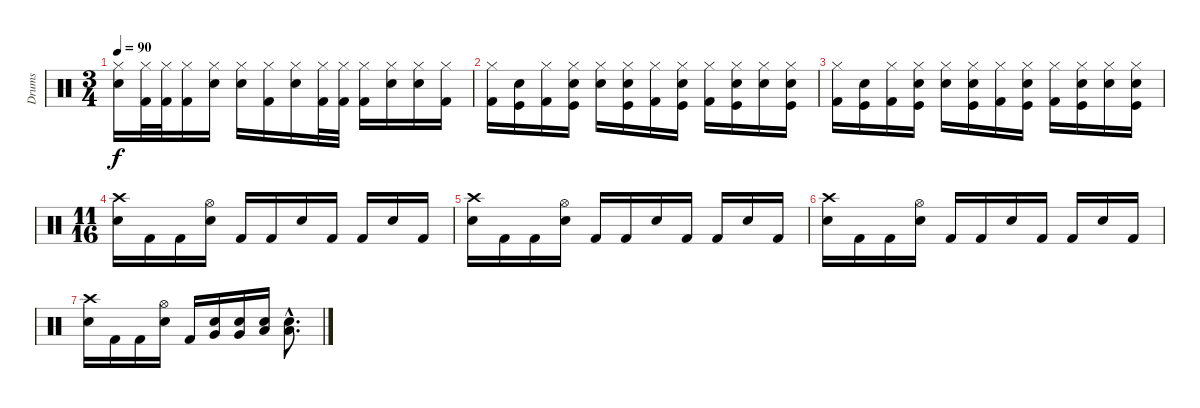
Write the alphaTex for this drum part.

\track ("Drums" "Drums") {instrument percussion}
\staff {score}
\articulation defaults
\ts (3 4)
\tempo 90
\clef neutral
\ks c
("Hi-Hat (closed)" "Snare (hit) 2").16{dy f} ("Hi-Hat (closed)" "Kick (hit) 2").32 ("Hi-Hat (closed)" "Kick (hit) 2").32 ("Hi-Hat (closed)" "Kick (hit) 2").16 ("Hi-Hat (closed)" "Electric Snare (hit)").16 ("Hi-Hat (closed)" "Snare (hit) 2").16 ("Hi-Hat (closed)" "Kick (hit) 2").16 ("Hi-Hat (closed)" "Snare (hit) 2").16 ("Hi-Hat (closed)" "Kick (hit) 2").32 ("Hi-Hat (closed)" "Kick (hit) 2").32 ("Hi-Hat (closed)" "Kick (hit) 2").16 ("Hi-Hat (closed)" "Electric Snare (hit)").16 ("Hi-Hat (closed)" "Snare (hit) 2").16 ("Hi-Hat (closed)" "Kick (hit) 2").16 |
("Hi-Hat (closed)" "Kick (hit) 2").16 ("Snare (hit) 2" "Kick (hit)").16 ("Hi-Hat (closed)" "Kick (hit) 2").16 ("Hi-Hat (closed)" "Snare (hit) 2" "Kick (hit)").16 ("Hi-Hat (closed)" "Electric Snare (hit)").16 ("Hi-Hat (closed)" "Snare (hit) 2" "Kick (hit)").16 ("Hi-Hat (closed)" "Kick (hit) 2").16 ("Hi-Hat (closed)" "Snare (hit) 2" "Kick (hit)").16 ("Hi-Hat (closed)" "Kick (hit) 2").16 ("Hi-Hat (closed)" "Snare (hit) 2" "Kick (hit)").16 ("Hi-Hat (closed)" "Electric Snare (hit)").16 ("Hi-Hat (closed)" "Snare (hit) 2" "Kick (hit)").16 |
("Hi-Hat (closed)" "Kick (hit) 2").16 ("Snare (hit) 2" "Kick (hit)").16 ("Hi-Hat (closed)" "Kick (hit) 2").16 ("Hi-Hat (closed)" "Snare (hit) 2" "Kick (hit)").16 ("Hi-Hat (closed)" "Electric Snare (hit)").16 ("Hi-Hat (closed)" "Snare (hit) 2" "Kick (hit)").16 ("Hi-Hat (closed)" "Kick (hit) 2").16 ("Hi-Hat (closed)" "Snare (hit) 2" "Kick (hit)").16 ("Hi-Hat (closed)" "Kick (hit) 2").16 ("Hi-Hat (closed)" "Snare (hit) 2" "Kick (hit)").16 ("Hi-Hat (closed)" "Electric Snare (hit)").16 ("Hi-Hat (closed)" "Snare (hit) 2" "Kick (hit)").16 |
\ts (11 16)
("Crash high (hit)" "Snare (hit) 2").16 "Kick (hit) 2".16 "Kick (hit) 2".16 ("Hi-Hat (open)" "Electric Snare (hit)").16 "Kick (hit) 2".16 "Kick (hit) 2".16 "Snare (hit) 2".16 "Kick (hit) 2".16 "Kick (hit) 2".16 "Electric Snare (hit)".16 "Kick (hit) 2".16 |
("Crash high (hit)" "Snare (hit) 2").16 "Kick (hit) 2".16 "Kick (hit) 2".16 ("Hi-Hat (open)" "Electric Snare (hit)").16 "Kick (hit) 2".16 "Kick (hit) 2".16 "Snare (hit) 2".16 "Kick (hit) 2".16 "Kick (hit) 2".16 "Electric Snare (hit)".16 "Kick (hit) 2".16 |
("Crash high (hit)" "Snare (hit) 2").16 "Kick (hit) 2".16 "Kick (hit) 2".16 ("Hi-Hat (open)" "Electric Snare (hit)").16 "Kick (hit) 2".16 "Kick (hit) 2".16 "Snare (hit) 2".16 "Kick (hit) 2".16 "Kick (hit) 2".16 "Electric Snare (hit)".16 "Kick (hit) 2".16 |
("Crash high (hit)" "Snare (hit) 2").16 "Kick (hit) 2".16 "Kick (hit) 2".16 ("Hi-Hat (open)" "Electric Snare (hit)").16 "Kick (hit) 2".16 ("Electric Snare (hit)" "Very Low Tom (hit)").16 ("Electric Snare (hit)" "Very Low Tom (hit)").16 ("Snare (hit) 2" "Low Floor Tom (hit)").16 ("Snare (hit) 2"{hac} "Low Floor Tom (hit)"{hac}).8{d}
